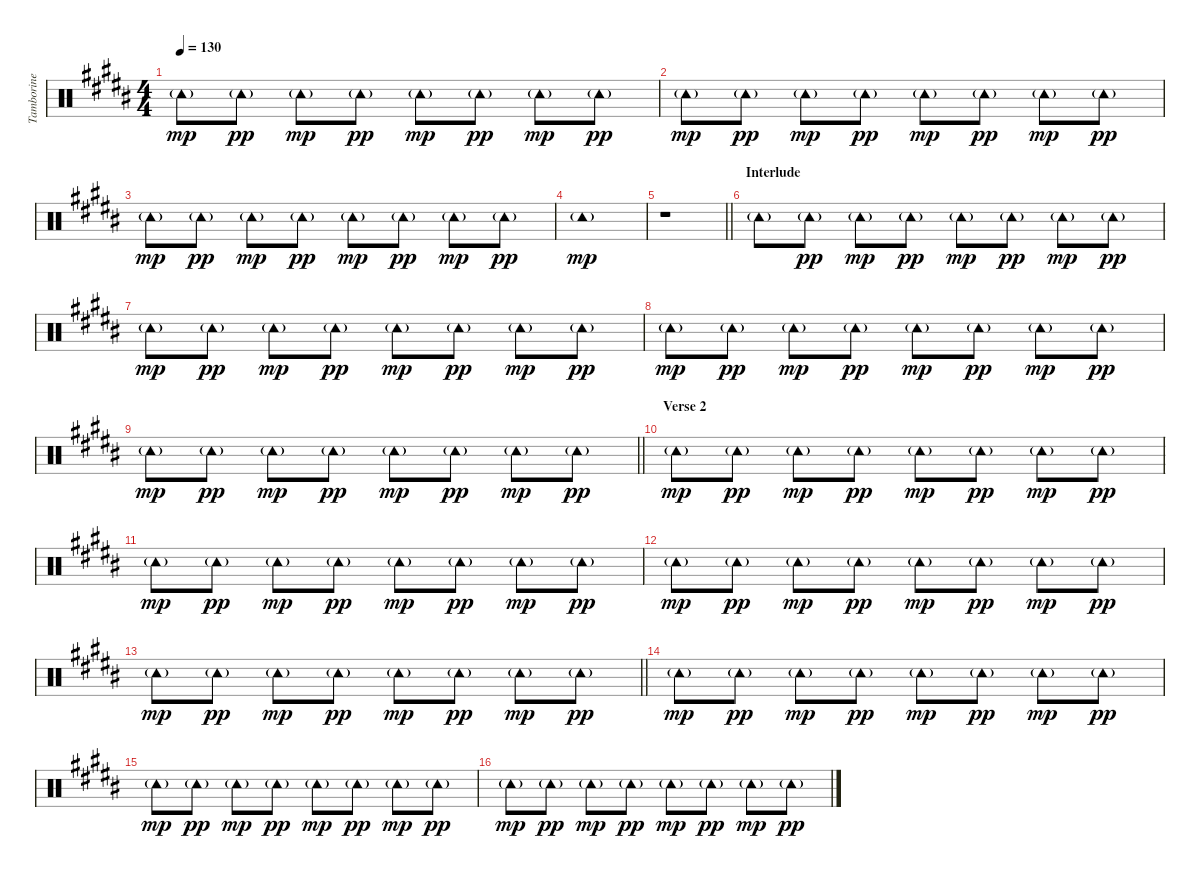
\track ("Tamborine" "Tamborine") {instrument percussion}
\staff {score}
\articulation defaults
\ts (4 4)
\tempo 130
\clef neutral
\ks b "Tambourine (hit)"{g}.8{dy mp} "Tambourine (hit)"{g}.8{dy pp} "Tambourine (hit)"{g}.8{dy mp} "Tambourine (hit)"{g}.8{dy pp} "Tambourine (hit)"{g}.8{dy mp} "Tambourine (hit)"{g}.8{dy pp} "Tambourine (hit)"{g}.8{dy mp} "Tambourine (hit)"{g}.8{dy pp}
|
"Tambourine (hit)"{g}.8{dy mp} "Tambourine (hit)"{g}.8{dy pp} "Tambourine (hit)"{g}.8{dy mp} "Tambourine (hit)"{g}.8{dy pp} "Tambourine (hit)"{g}.8{dy mp} "Tambourine (hit)"{g}.8{dy pp} "Tambourine (hit)"{g}.8{dy mp} "Tambourine (hit)"{g}.8{dy pp} |
"Tambourine (hit)"{g}.8{dy mp} "Tambourine (hit)"{g}.8{dy pp} "Tambourine (hit)"{g}.8{dy mp} "Tambourine (hit)"{g}.8{dy pp} "Tambourine (hit)"{g}.8{dy mp} "Tambourine (hit)"{g}.8{dy pp} "Tambourine (hit)"{g}.8{dy mp} "Tambourine (hit)"{g}.8{dy pp} |
"Tambourine (hit)"{g}.1{dy mp} |
\barLineRight lightlight
r.1 |
\section ("" "Interlude")
"Tambourine (hit)"{g}.8 "Tambourine (hit)"{g}.8{dy pp} "Tambourine (hit)"{g}.8{dy mp} "Tambourine (hit)"{g}.8{dy pp} "Tambourine (hit)"{g}.8{dy mp} "Tambourine (hit)"{g}.8{dy pp} "Tambourine (hit)"{g}.8{dy mp} "Tambourine (hit)"{g}.8{dy pp} |
"Tambourine (hit)"{g}.8{dy mp} "Tambourine (hit)"{g}.8{dy pp} "Tambourine (hit)"{g}.8{dy mp} "Tambourine (hit)"{g}.8{dy pp} "Tambourine (hit)"{g}.8{dy mp} "Tambourine (hit)"{g}.8{dy pp} "Tambourine (hit)"{g}.8{dy mp} "Tambourine (hit)"{g}.8{dy pp} |
"Tambourine (hit)"{g}.8{dy mp} "Tambourine (hit)"{g}.8{dy pp} "Tambourine (hit)"{g}.8{dy mp} "Tambourine (hit)"{g}.8{dy pp} "Tambourine (hit)"{g}.8{dy mp} "Tambourine (hit)"{g}.8{dy pp} "Tambourine (hit)"{g}.8{dy mp} "Tambourine (hit)"{g}.8{dy pp} |
\barLineRight lightlight "Tambourine (hit)"{g}.8{dy mp} "Tambourine (hit)"{g}.8{dy pp} "Tambourine (hit)"{g}.8{dy mp} "Tambourine (hit)"{g}.8{dy pp} "Tambourine (hit)"{g}.8{dy mp} "Tambourine (hit)"{g}.8{dy pp} "Tambourine (hit)"{g}.8{dy mp} "Tambourine (hit)"{g}.8{dy pp}
|
\section ("" "Verse 2")
"Tambourine (hit)"{g}.8{dy mp} "Tambourine (hit)"{g}.8{dy pp} "Tambourine (hit)"{g}.8{dy mp} "Tambourine (hit)"{g}.8{dy pp} "Tambourine (hit)"{g}.8{dy mp} "Tambourine (hit)"{g}.8{dy pp} "Tambourine (hit)"{g}.8{dy mp} "Tambourine (hit)"{g}.8{dy pp} |
"Tambourine (hit)"{g}.8{dy mp} "Tambourine (hit)"{g}.8{dy pp} "Tambourine (hit)"{g}.8{dy mp} "Tambourine (hit)"{g}.8{dy pp} "Tambourine (hit)"{g}.8{dy mp} "Tambourine (hit)"{g}.8{dy pp} "Tambourine (hit)"{g}.8{dy mp} "Tambourine (hit)"{g}.8{dy pp} |
"Tambourine (hit)"{g}.8{dy mp} "Tambourine (hit)"{g}.8{dy pp} "Tambourine (hit)"{g}.8{dy mp} "Tambourine (hit)"{g}.8{dy pp} "Tambourine (hit)"{g}.8{dy mp} "Tambourine (hit)"{g}.8{dy pp} "Tambourine (hit)"{g}.8{dy mp} "Tambourine (hit)"{g}.8{dy pp} |
\barLineRight lightlight "Tambourine (hit)"{g}.8{dy mp} "Tambourine (hit)"{g}.8{dy pp} "Tambourine (hit)"{g}.8{dy mp} "Tambourine (hit)"{g}.8{dy pp} "Tambourine (hit)"{g}.8{dy mp} "Tambourine (hit)"{g}.8{dy pp} "Tambourine (hit)"{g}.8{dy mp} "Tambourine (hit)"{g}.8{dy pp}
|
"Tambourine (hit)"{g}.8{dy mp} "Tambourine (hit)"{g}.8{dy pp} "Tambourine (hit)"{g}.8{dy mp} "Tambourine (hit)"{g}.8{dy pp} "Tambourine (hit)"{g}.8{dy mp} "Tambourine (hit)"{g}.8{dy pp} "Tambourine (hit)"{g}.8{dy mp} "Tambourine (hit)"{g}.8{dy pp} |
"Tambourine (hit)"{g}.8{dy mp} "Tambourine (hit)"{g}.8{dy pp} "Tambourine (hit)"{g}.8{dy mp} "Tambourine (hit)"{g}.8{dy pp} "Tambourine (hit)"{g}.8{dy mp} "Tambourine (hit)"{g}.8{dy pp} "Tambourine (hit)"{g}.8{dy mp} "Tambourine (hit)"{g}.8{dy pp} |
"Tambourine (hit)"{g}.8{dy mp} "Tambourine (hit)"{g}.8{dy pp} "Tambourine (hit)"{g}.8{dy mp} "Tambourine (hit)"{g}.8{dy pp} "Tambourine (hit)"{g}.8{dy mp} "Tambourine (hit)"{g}.8{dy pp} "Tambourine (hit)"{g}.8{dy mp} "Tambourine (hit)"{g}.8{dy pp}
